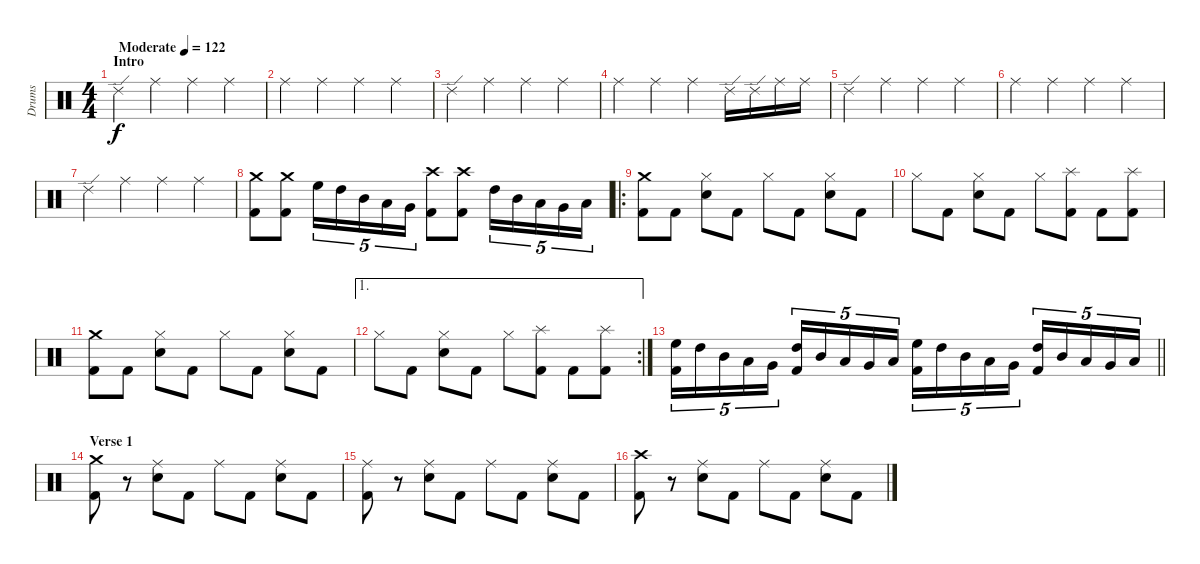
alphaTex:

\track ("Drums" "Drums") {instrument percussion}
\staff {score}
\articulation defaults
\ts (4 4)
\section ("" "Intro")
\tempo (122 "Moderate")
\clef neutral
\ks c "Ride (edge) 2".4{dy f} "Ride (middle)".4 "Ride (middle)".4 "Ride (middle)".4
|
"Ride (middle)".4 "Ride (middle)".4 "Ride (middle)".4 "Ride (middle)".4 |
"Ride (edge) 2".4 "Ride (middle)".4 "Ride (middle)".4 "Ride (middle)".4 |
"Ride (middle)".4 "Ride (middle)".4 "Ride (middle)".4 "Ride (edge) 2".16 "Ride (edge) 2".16 "Ride (middle)".16 "Ride (middle)".16 |
"Ride (edge) 2".4 "Ride (middle)".4 "Ride (middle)".4 "Ride (middle)".4 |
"Ride (middle)".4 "Ride (middle)".4 "Ride (middle)".4 "Ride (middle)".4 |
"Ride (edge) 2".4 "Ride (middle)".4 "Ride (middle)".4 "Ride (middle)".4 |
("Kick (hit) 2" "Crash medium (hit)").8 ("Kick (hit) 2" "Crash medium (hit)").8 "High Floor Tom (hit)".16{tu (5 4)} "High Tom (hit)".16{tu (5 4)} "Mid Tom (hit)".16{tu (5 4)} "Low Tom (hit)".16{tu (5 4)} "Very Low Tom (hit)".16{tu (5 4)} ("Kick (hit) 2" "Crash high (hit)").8 ("Kick (hit) 2" "Crash high (hit)").8 "High Tom (hit)".16{tu (5 4)} "Mid Tom (hit)".16{tu (5 4)} "Low Tom (hit)".16{tu (5 4)} "Very Low Tom (hit)".16{tu (5 4)} "Low Floor Tom (hit)".16{tu (5 4)} |
\ro
("Kick (hit) 2" "Crash medium (hit)").8 "Kick (hit) 2".8 ("Snare (hit) 2" "Hi-Hat (closed)").8 "Kick (hit) 2".8 "Hi-Hat (closed)".8 "Kick (hit) 2".8 ("Snare (hit) 2" "Hi-Hat (closed)").8 "Kick (hit) 2".8 |
"Hi-Hat (closed)".8 "Kick (hit) 2".8 ("Snare (hit) 2" "Hi-Hat (closed)").8 "Kick (hit) 2".8 "Hi-Hat (closed)".8 ("Kick (hit) 2" "Splash (hit)").8 "Kick (hit) 2".8 ("Kick (hit) 2" "Splash (hit)").8 |
("Kick (hit) 2" "Crash medium (hit)").8 "Kick (hit) 2".8 ("Snare (hit) 2" "Hi-Hat (closed)").8 "Kick (hit) 2".8 "Hi-Hat (closed)".8 "Kick (hit) 2".8 ("Snare (hit) 2" "Hi-Hat (closed)").8 "Kick (hit) 2".8 |
\ae 1
\rc 2 "Hi-Hat (closed)".8 "Kick (hit) 2".8
("Snare (hit) 2" "Hi-Hat (closed)").8 "Kick (hit) 2".8 "Hi-Hat (closed)".8 ("Kick (hit) 2" "Splash (hit)").8 "Kick (hit) 2".8 ("Kick (hit) 2" "Splash (hit)").8 |
\barLineRight lightlight
("Kick (hit) 2" "High Floor Tom (hit)").16{tu (5 4)} "High Tom (hit)".16{tu (5 4)} "Mid Tom (hit)".16{tu (5 4)} "Low Tom (hit)".16{tu (5 4)} "Very Low Tom (hit)".16{tu (5 4)} ("Kick (hit) 2" "High Tom (hit)").16{tu (5 4)} "Mid Tom (hit)".16{tu (5 4)} "Low Tom (hit)".16{tu (5 4)} "Very Low Tom (hit)".16{tu (5 4)} "Low Floor Tom (hit)".16{tu (5 4)} ("Kick (hit) 2" "High Floor Tom (hit)").16{tu (5 4)} "High Tom (hit)".16{tu (5 4)} "Mid Tom (hit)".16{tu (5 4)} "Low Tom (hit)".16{tu (5 4)} "Very Low Tom (hit)".16{tu (5 4)} ("Kick (hit) 2" "High Tom (hit)").16{tu (5 4)} "Mid Tom (hit)".16{tu (5 4)} "Low Tom (hit)".16{tu (5 4)} "Very Low Tom (hit)".16{tu (5 4)} "Low Floor Tom (hit)".16{tu (5 4)} |
\section ("" "Verse 1")
("Kick (hit) 2" "Crash medium (hit)").8 r.8 ("Snare (hit) 2" "Ride (middle)").8 "Kick (hit) 2".8 "Ride (middle)".8 "Kick (hit) 2".8 ("Snare (hit) 2" "Ride (middle)").8 "Kick (hit) 2".8 |
("Kick (hit) 2" "Ride (middle)").8 r.8 ("Snare (hit) 2" "Ride (middle)").8 "Kick (hit) 2".8 "Ride (middle)".8 "Kick (hit) 2".8 ("Snare (hit) 2" "Ride (middle)").8 "Kick (hit) 2".8 |
("Kick (hit) 2" "Crash high (hit)").8 r.8 ("Snare (hit) 2" "Ride (middle)").8 "Kick (hit) 2".8 "Ride (middle)".8 "Kick (hit) 2".8 ("Snare (hit) 2" "Ride (middle)").8 "Kick (hit) 2".8
